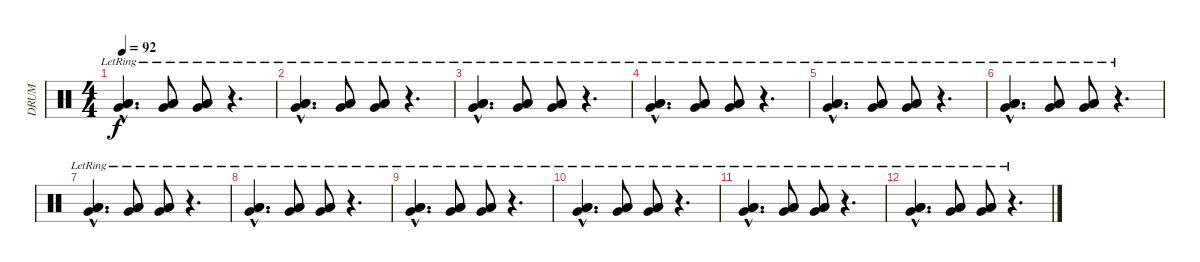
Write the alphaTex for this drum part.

\track ("DRUM" "DRUM") {instrument percussion}
\staff {score}
\articulation defaults
\ts (4 4)
\tempo 92
\clef neutral
\ks c
("Low Floor Tom (hit)"{hac lr} "Very Low Tom (hit)"{hac} "Low Tom (hit)"{hac}).4{d dy f} ("Low Floor Tom (hit)"{lr} "Very Low Tom (hit)" "Low Tom (hit)").8 ("Low Floor Tom (hit)"{lr} "Very Low Tom (hit)"{lr} "Low Tom (hit)").8 r.4{d} |
("Low Floor Tom (hit)"{hac lr} "Very Low Tom (hit)"{hac} "Low Tom (hit)"{hac}).4{d} ("Low Floor Tom (hit)"{lr} "Very Low Tom (hit)" "Low Tom (hit)").8 ("Low Floor Tom (hit)"{lr} "Very Low Tom (hit)"{lr} "Low Tom (hit)").8 r.4{d} |
("Low Floor Tom (hit)"{hac lr} "Very Low Tom (hit)"{hac} "Low Tom (hit)"{hac}).4{d} ("Low Floor Tom (hit)"{lr} "Very Low Tom (hit)" "Low Tom (hit)").8 ("Low Floor Tom (hit)"{lr} "Very Low Tom (hit)"{lr} "Low Tom (hit)").8 r.4{d} |
("Low Floor Tom (hit)"{hac lr} "Very Low Tom (hit)"{hac} "Low Tom (hit)"{hac}).4{d} ("Low Floor Tom (hit)"{lr} "Very Low Tom (hit)" "Low Tom (hit)").8 ("Low Floor Tom (hit)"{lr} "Very Low Tom (hit)"{lr} "Low Tom (hit)").8 r.4{d} |
("Low Floor Tom (hit)"{hac lr} "Very Low Tom (hit)"{hac} "Low Tom (hit)"{hac}).4{d} ("Low Floor Tom (hit)"{lr} "Very Low Tom (hit)" "Low Tom (hit)").8 ("Low Floor Tom (hit)"{lr} "Very Low Tom (hit)"{lr} "Low Tom (hit)").8 r.4{d} |
("Low Floor Tom (hit)"{hac lr} "Very Low Tom (hit)"{hac} "Low Tom (hit)"{hac}).4{d} ("Low Floor Tom (hit)"{lr} "Very Low Tom (hit)" "Low Tom (hit)").8 ("Low Floor Tom (hit)"{lr} "Very Low Tom (hit)"{lr} "Low Tom (hit)").8 r.4{d} |
("Low Floor Tom (hit)"{hac lr} "Very Low Tom (hit)"{hac} "Low Tom (hit)"{hac}).4{d} ("Low Floor Tom (hit)"{lr} "Very Low Tom (hit)" "Low Tom (hit)").8 ("Low Floor Tom (hit)"{lr} "Very Low Tom (hit)"{lr} "Low Tom (hit)").8 r.4{d} |
("Low Floor Tom (hit)"{hac lr} "Very Low Tom (hit)"{hac} "Low Tom (hit)"{hac}).4{d} ("Low Floor Tom (hit)"{lr} "Very Low Tom (hit)" "Low Tom (hit)").8 ("Low Floor Tom (hit)"{lr} "Very Low Tom (hit)"{lr} "Low Tom (hit)").8 r.4{d} |
("Low Floor Tom (hit)"{hac lr} "Very Low Tom (hit)"{hac} "Low Tom (hit)"{hac}).4{d} ("Low Floor Tom (hit)"{lr} "Very Low Tom (hit)" "Low Tom (hit)").8 ("Low Floor Tom (hit)"{lr} "Very Low Tom (hit)"{lr} "Low Tom (hit)").8 r.4{d} |
("Low Floor Tom (hit)"{hac lr} "Very Low Tom (hit)"{hac} "Low Tom (hit)"{hac}).4{d} ("Low Floor Tom (hit)"{lr} "Very Low Tom (hit)" "Low Tom (hit)").8 ("Low Floor Tom (hit)"{lr} "Very Low Tom (hit)"{lr} "Low Tom (hit)").8 r.4{d} |
("Low Floor Tom (hit)"{hac lr} "Very Low Tom (hit)"{hac} "Low Tom (hit)"{hac}).4{d} ("Low Floor Tom (hit)"{lr} "Very Low Tom (hit)" "Low Tom (hit)").8 ("Low Floor Tom (hit)"{lr} "Very Low Tom (hit)"{lr} "Low Tom (hit)").8 r.4{d} |
("Low Floor Tom (hit)"{hac lr} "Very Low Tom (hit)"{hac} "Low Tom (hit)"{hac}).4{d} ("Low Floor Tom (hit)"{lr} "Very Low Tom (hit)" "Low Tom (hit)").8 ("Low Floor Tom (hit)"{lr} "Very Low Tom (hit)"{lr} "Low Tom (hit)").8 r.4{d}
